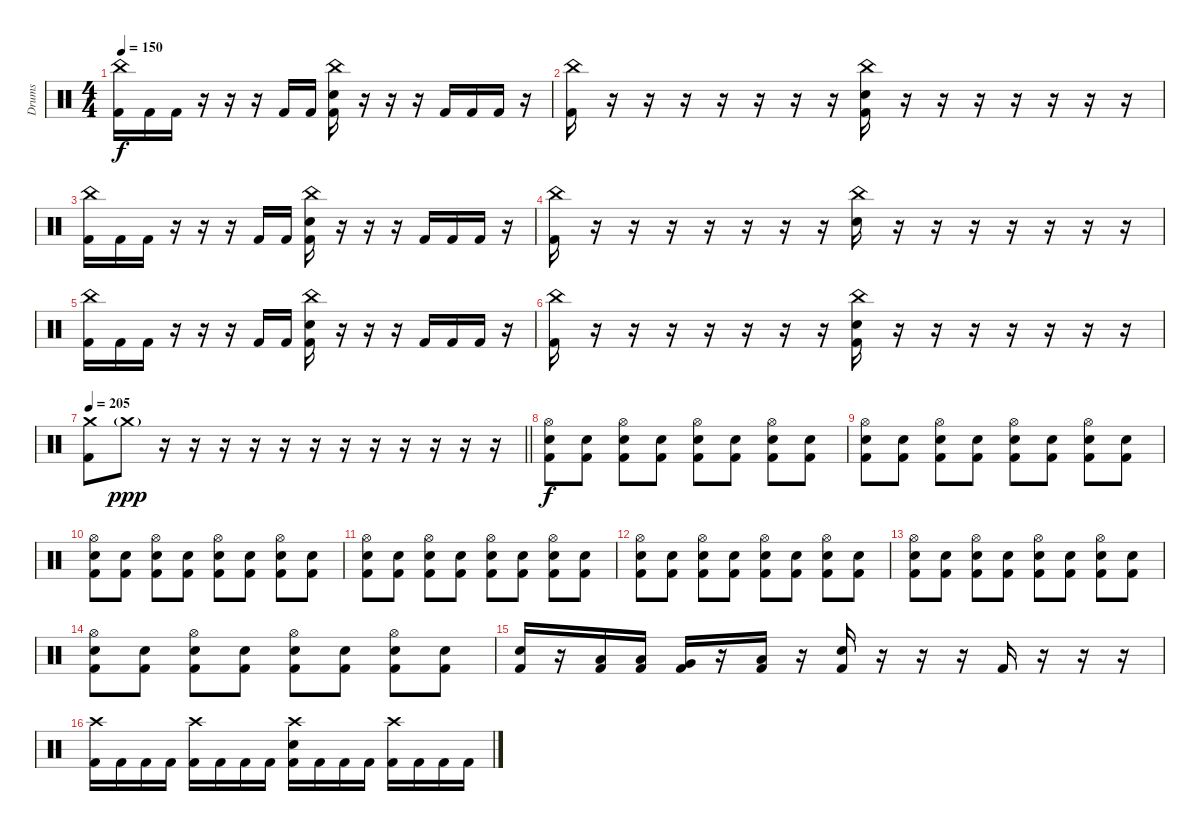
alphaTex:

\track ("Drums" "Drums") {instrument percussion}
\staff {score}
\articulation defaults
\ts (4 4)
\tempo 150
\clef neutral
\ks c
("China (hit)" "Kick (hit) 2").16{dy f} "Kick (hit) 2".16 "Kick (hit) 2".16 r.16 r.16 r.16 "Kick (hit) 2".16 "Kick (hit) 2".16 ("China (hit)" "Electric Snare (hit)" "Kick (hit) 2").16 r.16 r.16 r.16 "Kick (hit) 2".16 "Kick (hit) 2".16 "Kick (hit) 2".16 r.16 |
("China (hit)" "Kick (hit) 2").16 r.16 r.16 r.16 r.16 r.16 r.16 r.16 ("China (hit)" "Electric Snare (hit)" "Kick (hit) 2").16 r.16 r.16 r.16 r.16 r.16 r.16 r.16 |
("China (hit)" "Kick (hit) 2").16 "Kick (hit) 2".16 "Kick (hit) 2".16 r.16 r.16 r.16 "Kick (hit) 2".16 "Kick (hit) 2".16 ("China (hit)" "Electric Snare (hit)" "Kick (hit) 2").16 r.16 r.16 r.16 "Kick (hit) 2".16 "Kick (hit) 2".16 "Kick (hit) 2".16 r.16 |
("China (hit)" "Kick (hit) 2").16 r.16 r.16 r.16 r.16 r.16 r.16 r.16 ("China (hit)" "Electric Snare (hit)").16 r.16 r.16 r.16 r.16 r.16 r.16 r.16 |
("China (hit)" "Kick (hit) 2").16 "Kick (hit) 2".16 "Kick (hit) 2".16 r.16 r.16 r.16 "Kick (hit) 2".16 "Kick (hit) 2".16 ("China (hit)" "Electric Snare (hit)" "Kick (hit) 2").16 r.16 r.16 r.16 "Kick (hit) 2".16 "Kick (hit) 2".16 "Kick (hit) 2".16 r.16 |
("China (hit)" "Kick (hit) 2").16 r.16 r.16 r.16 r.16 r.16 r.16 r.16 ("China (hit)" "Electric Snare (hit)" "Kick (hit) 2").16 r.16 r.16 r.16 r.16 r.16 r.16 r.16 |
\tempo 205
\barLineRight lightlight
("Crash medium (hit)" "Kick (hit) 2").8 "Crash medium (hit)"{g}.8{dy ppp volume 0} r.16 r.16 r.16 r.16 r.16 r.16 r.16 r.16 r.16 r.16 r.16 r.16 |
("Hi-Hat (open)" "Electric Snare (hit)" "Kick (hit) 2").8{dy f volume 16} ("Electric Snare (hit)" "Kick (hit) 2").8 ("Hi-Hat (open)" "Electric Snare (hit)" "Kick (hit) 2").8 ("Electric Snare (hit)" "Kick (hit) 2").8 ("Hi-Hat (open)" "Electric Snare (hit)" "Kick (hit) 2").8 ("Electric Snare (hit)" "Kick (hit) 2").8 ("Hi-Hat (open)" "Electric Snare (hit)" "Kick (hit) 2").8 ("Electric Snare (hit)" "Kick (hit) 2").8 |
("Hi-Hat (open)" "Electric Snare (hit)" "Kick (hit) 2").8 ("Electric Snare (hit)" "Kick (hit) 2").8 ("Hi-Hat (open)" "Electric Snare (hit)" "Kick (hit) 2").8 ("Electric Snare (hit)" "Kick (hit) 2").8 ("Hi-Hat (open)" "Electric Snare (hit)" "Kick (hit) 2").8 ("Electric Snare (hit)" "Kick (hit) 2").8 ("Hi-Hat (open)" "Electric Snare (hit)" "Kick (hit) 2").8 ("Electric Snare (hit)" "Kick (hit) 2").8 |
("Hi-Hat (open)" "Electric Snare (hit)" "Kick (hit) 2").8 ("Electric Snare (hit)" "Kick (hit) 2").8 ("Hi-Hat (open)" "Electric Snare (hit)" "Kick (hit) 2").8 ("Electric Snare (hit)" "Kick (hit) 2").8 ("Hi-Hat (open)" "Electric Snare (hit)" "Kick (hit) 2").8 ("Electric Snare (hit)" "Kick (hit) 2").8 ("Hi-Hat (open)" "Electric Snare (hit)" "Kick (hit) 2").8 ("Electric Snare (hit)" "Kick (hit) 2").8 |
("Hi-Hat (open)" "Electric Snare (hit)" "Kick (hit) 2").8 ("Electric Snare (hit)" "Kick (hit) 2").8 ("Hi-Hat (open)" "Electric Snare (hit)" "Kick (hit) 2").8 ("Electric Snare (hit)" "Kick (hit) 2").8 ("Hi-Hat (open)" "Electric Snare (hit)" "Kick (hit) 2").8 ("Electric Snare (hit)" "Kick (hit) 2").8 ("Hi-Hat (open)" "Electric Snare (hit)" "Kick (hit) 2").8 ("Electric Snare (hit)" "Kick (hit) 2").8 |
("Hi-Hat (open)" "Electric Snare (hit)" "Kick (hit) 2").8 ("Electric Snare (hit)" "Kick (hit) 2").8 ("Hi-Hat (open)" "Electric Snare (hit)" "Kick (hit) 2").8 ("Electric Snare (hit)" "Kick (hit) 2").8 ("Hi-Hat (open)" "Electric Snare (hit)" "Kick (hit) 2").8 ("Electric Snare (hit)" "Kick (hit) 2").8 ("Hi-Hat (open)" "Electric Snare (hit)" "Kick (hit) 2").8 ("Electric Snare (hit)" "Kick (hit) 2").8 |
("Hi-Hat (open)" "Electric Snare (hit)" "Kick (hit) 2").8 ("Electric Snare (hit)" "Kick (hit) 2").8 ("Hi-Hat (open)" "Electric Snare (hit)" "Kick (hit) 2").8 ("Electric Snare (hit)" "Kick (hit) 2").8 ("Hi-Hat (open)" "Electric Snare (hit)" "Kick (hit) 2").8 ("Electric Snare (hit)" "Kick (hit) 2").8 ("Hi-Hat (open)" "Electric Snare (hit)" "Kick (hit) 2").8 ("Electric Snare (hit)" "Kick (hit) 2").8 |
("Hi-Hat (open)" "Electric Snare (hit)" "Kick (hit) 2").8 ("Electric Snare (hit)" "Kick (hit) 2").8 ("Hi-Hat (open)" "Electric Snare (hit)" "Kick (hit) 2").8 ("Electric Snare (hit)" "Kick (hit) 2").8 ("Hi-Hat (open)" "Electric Snare (hit)" "Kick (hit) 2").8 ("Electric Snare (hit)" "Kick (hit) 2").8 ("Hi-Hat (open)" "Electric Snare (hit)" "Kick (hit) 2").8 ("Electric Snare (hit)" "Kick (hit) 2").8 |
("Electric Snare (hit)" "Kick (hit) 2").16 r.16 ("Low Tom (hit)" "Kick (hit) 2").16 ("Low Tom (hit)" "Kick (hit) 2").16 ("Very Low Tom (hit)" "Kick (hit) 2").16 r.16 ("Low Floor Tom (hit)" "Kick (hit) 2").16 r.16 ("Electric Snare (hit)" "Kick (hit) 2").16 r.16 r.16 r.16 "Kick (hit) 2".16 r.16 r.16 r.16 |
("Crash high (hit)" "Kick (hit) 2").16 "Kick (hit) 2".16 "Kick (hit) 2".16 "Kick (hit) 2".16 ("Crash high (hit)" "Kick (hit) 2").16 "Kick (hit) 2".16 "Kick (hit) 2".16 "Kick (hit) 2".16 ("Crash high (hit)" "Electric Snare (hit)" "Kick (hit) 2").16 "Kick (hit) 2".16 "Kick (hit) 2".16 "Kick (hit) 2".16 ("Crash high (hit)" "Kick (hit) 2").16 "Kick (hit) 2".16 "Kick (hit) 2".16 "Kick (hit) 2".16
